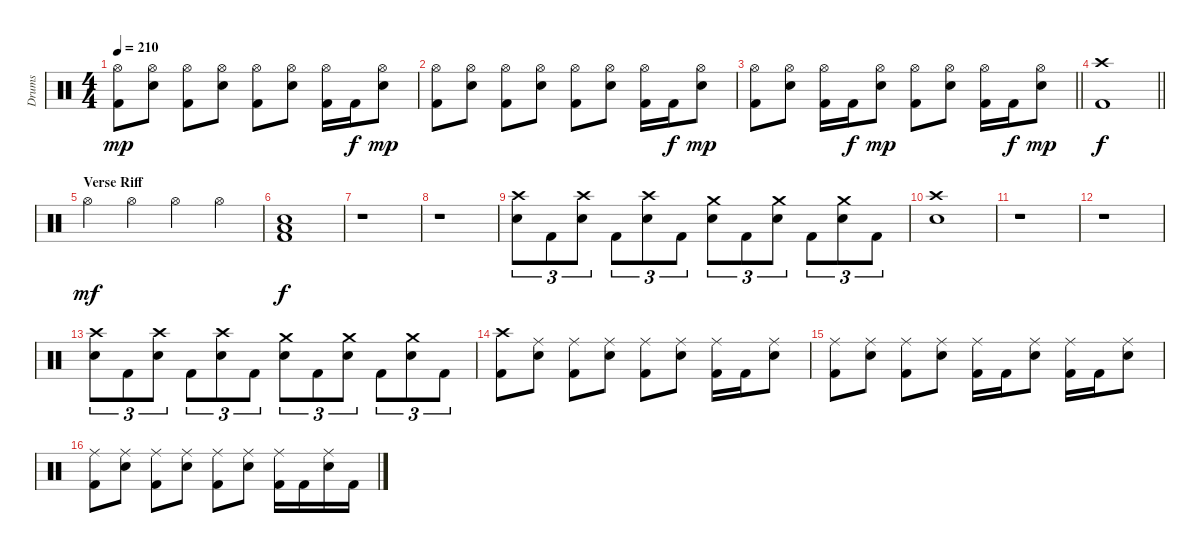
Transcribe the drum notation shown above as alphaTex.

\track ("Drums" "Drums") {instrument percussion}
\staff {score}
\articulation defaults
\ts (4 4)
\tempo 210
\clef neutral
\ks c
("Hi-Hat (open)" "Kick (hit) 2").8{dy mp} ("Hi-Hat (open)" "Snare (hit) 2").8 ("Hi-Hat (open)" "Kick (hit) 2").8 ("Hi-Hat (open)" "Snare (hit) 2").8 ("Hi-Hat (open)" "Kick (hit) 2").8 ("Hi-Hat (open)" "Snare (hit) 2").8 ("Hi-Hat (open)" "Kick (hit) 2").16 "Kick (hit) 2".16{dy f} ("Hi-Hat (open)" "Snare (hit) 2").8{dy mp} |
("Hi-Hat (open)" "Kick (hit) 2").8 ("Hi-Hat (open)" "Snare (hit) 2").8 ("Hi-Hat (open)" "Kick (hit) 2").8 ("Hi-Hat (open)" "Snare (hit) 2").8 ("Hi-Hat (open)" "Kick (hit) 2").8 ("Hi-Hat (open)" "Snare (hit) 2").8 ("Hi-Hat (open)" "Kick (hit) 2").16 "Kick (hit) 2".16{dy f} ("Hi-Hat (open)" "Snare (hit) 2").8{dy mp} |
\barLineRight lightlight
("Hi-Hat (open)" "Kick (hit) 2").8 ("Hi-Hat (open)" "Snare (hit) 2").8 ("Hi-Hat (open)" "Kick (hit) 2").16 "Kick (hit) 2".16{dy f} ("Hi-Hat (open)" "Snare (hit) 2").8{dy mp} ("Hi-Hat (open)" "Kick (hit) 2").8 ("Hi-Hat (open)" "Snare (hit) 2").8 ("Hi-Hat (open)" "Kick (hit) 2").16 "Kick (hit) 2".16{dy f} ("Hi-Hat (open)" "Snare (hit) 2").8{dy mp} |
\barLineRight lightlight
("Crash high (hit)" "Kick (hit) 2").1{dy f} |
\section ("" "Verse Riff")
"Hi-Hat (open)".4{dy mf} "Hi-Hat (open)".4 "Hi-Hat (open)".4 "Hi-Hat (open)".4 |
("Snare (hit) 2" "Low Floor Tom (hit)" "Kick (hit) 2").1{dy f} |
r.1 |
r.1 |
("Crash high (hit)" "Snare (hit) 2").8{tu (3 2)} "Kick (hit) 2".8{tu (3 2)} ("Crash high (hit)" "Snare (hit) 2").8{tu (3 2)} "Kick (hit) 2".8{tu (3 2)} ("Crash high (hit)" "Snare (hit) 2").8{tu (3 2)} "Kick (hit) 2".8{tu (3 2)} ("Crash medium (hit)" "Snare (hit) 2").8{tu (3 2)} "Kick (hit) 2".8{tu (3 2)} ("Crash medium (hit)" "Snare (hit) 2").8{tu (3 2)} "Kick (hit) 2".8{tu (3 2)} ("Crash medium (hit)" "Snare (hit) 2").8{tu (3 2)} "Kick (hit) 2".8{tu (3 2)} |
("Crash high (hit)" "Snare (hit) 2").1 |
r.1 |
r.1 |
("Crash high (hit)" "Snare (hit) 2").8{tu (3 2)} "Kick (hit) 2".8{tu (3 2)} ("Crash high (hit)" "Snare (hit) 2").8{tu (3 2)} "Kick (hit) 2".8{tu (3 2)} ("Crash high (hit)" "Snare (hit) 2").8{tu (3 2)} "Kick (hit) 2".8{tu (3 2)} ("Crash medium (hit)" "Snare (hit) 2").8{tu (3 2)} "Kick (hit) 2".8{tu (3 2)} ("Crash medium (hit)" "Snare (hit) 2").8{tu (3 2)} "Kick (hit) 2".8{tu (3 2)} ("Crash medium (hit)" "Snare (hit) 2").8{tu (3 2)} "Kick (hit) 2".8{tu (3 2)} |
("Crash high (hit)" "Kick (hit) 2").8 ("Ride (middle)" "Snare (hit) 2").8 ("Ride (middle)" "Kick (hit) 2").8 ("Ride (middle)" "Snare (hit) 2").8 ("Ride (middle)" "Kick (hit) 2").8 ("Ride (middle)" "Snare (hit) 2").8 ("Ride (middle)" "Kick (hit) 2").16 "Kick (hit) 2".16 ("Ride (middle)" "Snare (hit) 2").8 |
("Ride (middle)" "Kick (hit) 2").8 ("Ride (middle)" "Snare (hit) 2").8 ("Ride (middle)" "Kick (hit) 2").8 ("Ride (middle)" "Snare (hit) 2").8 ("Ride (middle)" "Kick (hit) 2").16 "Kick (hit) 2".16 ("Ride (middle)" "Snare (hit) 2").8 ("Ride (middle)" "Kick (hit) 2").16 "Kick (hit) 2".16 ("Ride (middle)" "Snare (hit) 2").8 |
("Ride (middle)" "Kick (hit) 2").8 ("Ride (middle)" "Snare (hit) 2").8 ("Ride (middle)" "Kick (hit) 2").8 ("Ride (middle)" "Snare (hit) 2").8 ("Ride (middle)" "Kick (hit) 2").8 ("Ride (middle)" "Snare (hit) 2").8 ("Ride (middle)" "Kick (hit) 2").16 "Kick (hit) 2".16 ("Ride (middle)" "Snare (hit) 2").16 "Kick (hit) 2".16
